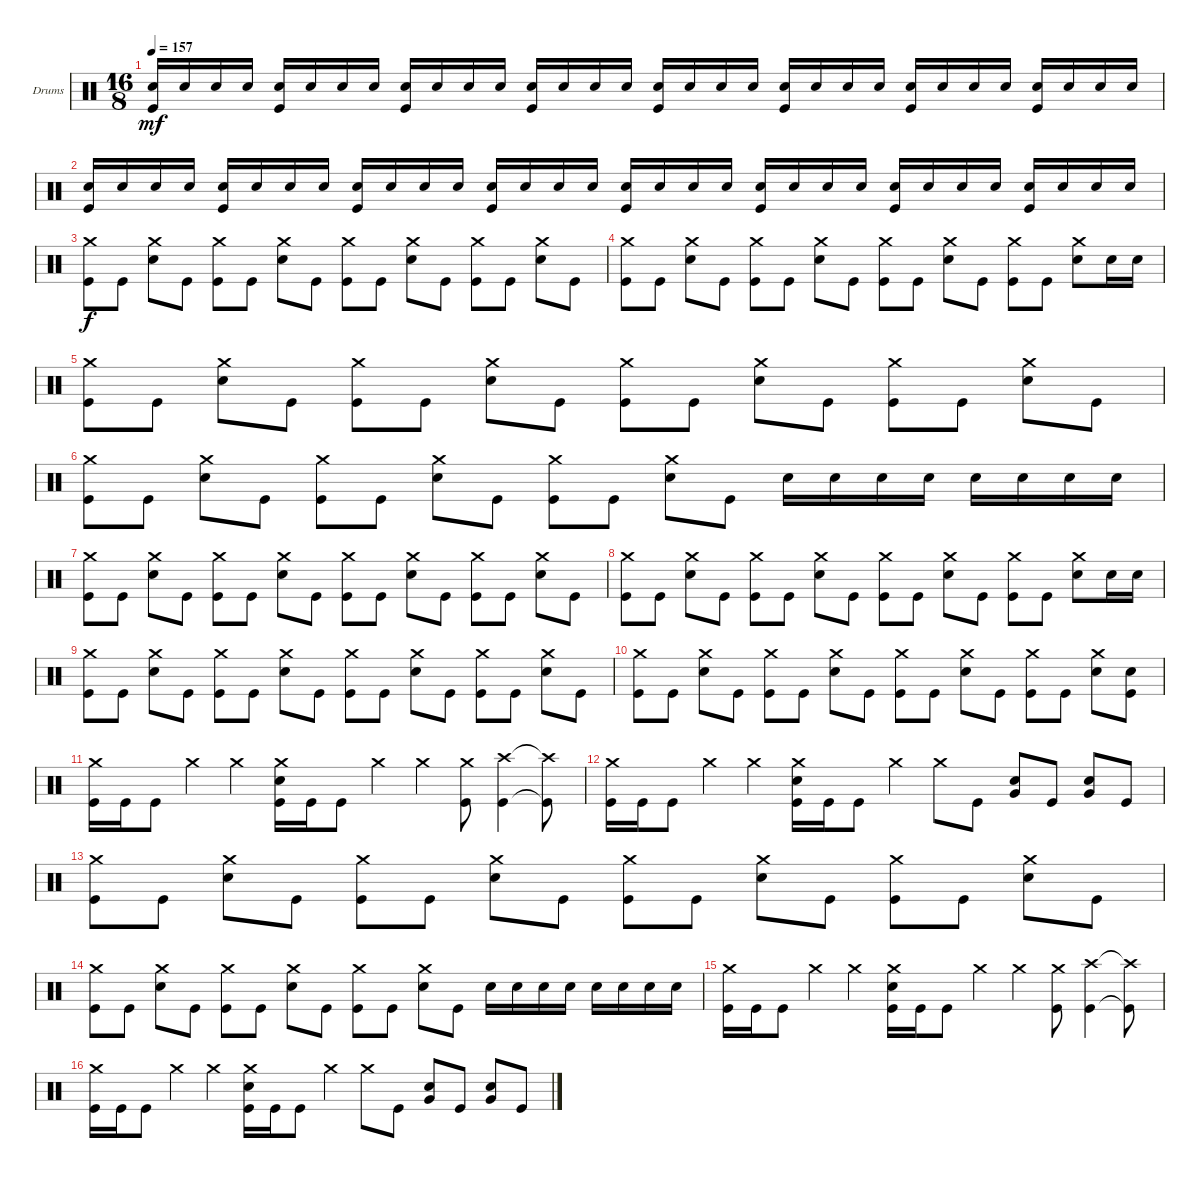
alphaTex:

\bracketExtendMode groupsimilarinstruments
\firstSystemTrackNameOrientation horizontal
\otherSystemsTrackNameOrientation horizontal
\track ("Drumkit" "Drums") {instrument percussion}
\staff {score}
\articulation defaults
\ts (16 8)
\tempo 157
\clef neutral
\ks c
("Snare (hit) 2" "Kick (hit)").16{dy mf} "Snare (hit) 2".16 "Snare (hit) 2".16 "Snare (hit) 2".16 ("Snare (hit) 2" "Kick (hit)").16 "Snare (hit) 2".16 "Snare (hit) 2".16 "Snare (hit) 2".16 ("Snare (hit) 2" "Kick (hit)").16 "Snare (hit) 2".16 "Snare (hit) 2".16 "Snare (hit) 2".16 ("Snare (hit) 2" "Kick (hit)").16 "Snare (hit) 2".16 "Snare (hit) 2".16 "Snare (hit) 2".16 ("Snare (hit) 2" "Kick (hit)").16 "Snare (hit) 2".16 "Snare (hit) 2".16 "Snare (hit) 2".16 ("Snare (hit) 2" "Kick (hit)").16 "Snare (hit) 2".16 "Snare (hit) 2".16 "Snare (hit) 2".16 ("Snare (hit) 2" "Kick (hit)").16 "Snare (hit) 2".16 "Snare (hit) 2".16 "Snare (hit) 2".16 ("Snare (hit) 2" "Kick (hit)").16 "Snare (hit) 2".16 "Snare (hit) 2".16 "Snare (hit) 2".16 |
("Snare (hit) 2" "Kick (hit)").16 "Snare (hit) 2".16 "Snare (hit) 2".16 "Snare (hit) 2".16 ("Snare (hit) 2" "Kick (hit)").16 "Snare (hit) 2".16 "Snare (hit) 2".16 "Snare (hit) 2".16 ("Snare (hit) 2" "Kick (hit)").16 "Snare (hit) 2".16 "Snare (hit) 2".16 "Snare (hit) 2".16 ("Snare (hit) 2" "Kick (hit)").16 "Snare (hit) 2".16 "Snare (hit) 2".16 "Snare (hit) 2".16 ("Snare (hit) 2" "Kick (hit)").16 "Snare (hit) 2".16 "Snare (hit) 2".16 "Snare (hit) 2".16 ("Snare (hit) 2" "Kick (hit)").16 "Snare (hit) 2".16 "Snare (hit) 2".16 "Snare (hit) 2".16 ("Snare (hit) 2" "Kick (hit)").16 "Snare (hit) 2".16 "Snare (hit) 2".16 "Snare (hit) 2".16 ("Snare (hit) 2" "Kick (hit)").16 "Snare (hit) 2".16 "Snare (hit) 2".16 "Snare (hit) 2".16 |
("Kick (hit)" "Crash medium (hit)").8{dy f} "Kick (hit)".8 ("Snare (hit) 2" "Crash medium (hit)").8 "Kick (hit)".8 ("Crash medium (hit)" "Kick (hit)").8 "Kick (hit)".8 ("Snare (hit) 2" "Crash medium (hit)").8 "Kick (hit)".8 ("Kick (hit)" "Crash medium (hit)").8 "Kick (hit)".8 ("Snare (hit) 2" "Crash medium (hit)").8 "Kick (hit)".8 ("Kick (hit)" "Crash medium (hit)").8 "Kick (hit)".8 ("Snare (hit) 2" "Crash medium (hit)").8 "Kick (hit)".8 |
("Kick (hit)" "Crash medium (hit)").8 "Kick (hit)".8 ("Snare (hit) 2" "Crash medium (hit)").8 "Kick (hit)".8 ("Crash medium (hit)" "Kick (hit)").8 "Kick (hit)".8 ("Snare (hit) 2" "Crash medium (hit)").8 "Kick (hit)".8 ("Kick (hit)" "Crash medium (hit)").8 "Kick (hit)".8 ("Snare (hit) 2" "Crash medium (hit)").8 "Kick (hit)".8 ("Kick (hit)" "Crash medium (hit)").8 "Kick (hit)".8 ("Snare (hit) 2" "Crash medium (hit)").8 "Snare (hit) 2".16 "Snare (hit) 2".16 |
("Kick (hit)" "Crash medium (hit)").8 "Kick (hit)".8 ("Snare (hit) 2" "Crash medium (hit)").8 "Kick (hit)".8 ("Crash medium (hit)" "Kick (hit)").8 "Kick (hit)".8 ("Snare (hit) 2" "Crash medium (hit)").8 "Kick (hit)".8 ("Kick (hit)" "Crash medium (hit)").8 "Kick (hit)".8 ("Snare (hit) 2" "Crash medium (hit)").8 "Kick (hit)".8 ("Kick (hit)" "Crash medium (hit)").8 "Kick (hit)".8 ("Snare (hit) 2" "Crash medium (hit)").8 "Kick (hit)".8 |
("Kick (hit)" "Crash medium (hit)").8 "Kick (hit)".8 ("Snare (hit) 2" "Crash medium (hit)").8 "Kick (hit)".8 ("Crash medium (hit)" "Kick (hit)").8 "Kick (hit)".8 ("Snare (hit) 2" "Crash medium (hit)").8 "Kick (hit)".8 ("Kick (hit)" "Crash medium (hit)").8 "Kick (hit)".8 ("Snare (hit) 2" "Crash medium (hit)").8 "Kick (hit)".8 "Snare (hit) 2".16 "Snare (hit) 2".16 "Snare (hit) 2".16 "Snare (hit) 2".16 "Snare (hit) 2".16 "Snare (hit) 2".16 "Snare (hit) 2".16 "Snare (hit) 2".16 |
("Kick (hit)" "Crash medium (hit)").8 "Kick (hit)".8 ("Snare (hit) 2" "Crash medium (hit)").8 "Kick (hit)".8 ("Crash medium (hit)" "Kick (hit)").8 "Kick (hit)".8 ("Snare (hit) 2" "Crash medium (hit)").8 "Kick (hit)".8 ("Kick (hit)" "Crash medium (hit)").8 "Kick (hit)".8 ("Snare (hit) 2" "Crash medium (hit)").8 "Kick (hit)".8 ("Kick (hit)" "Crash medium (hit)").8 "Kick (hit)".8 ("Snare (hit) 2" "Crash medium (hit)").8 "Kick (hit)".8 |
("Kick (hit)" "Crash medium (hit)").8 "Kick (hit)".8 ("Snare (hit) 2" "Crash medium (hit)").8 "Kick (hit)".8 ("Crash medium (hit)" "Kick (hit)").8 "Kick (hit)".8 ("Snare (hit) 2" "Crash medium (hit)").8 "Kick (hit)".8 ("Kick (hit)" "Crash medium (hit)").8 "Kick (hit)".8 ("Snare (hit) 2" "Crash medium (hit)").8 "Kick (hit)".8 ("Kick (hit)" "Crash medium (hit)").8 "Kick (hit)".8 ("Snare (hit) 2" "Crash medium (hit)").8 "Snare (hit) 2".16 "Snare (hit) 2".16 |
("Kick (hit)" "Crash medium (hit)").8 "Kick (hit)".8 ("Snare (hit) 2" "Crash medium (hit)").8 "Kick (hit)".8 ("Crash medium (hit)" "Kick (hit)").8 "Kick (hit)".8 ("Snare (hit) 2" "Crash medium (hit)").8 "Kick (hit)".8 ("Kick (hit)" "Crash medium (hit)").8 "Kick (hit)".8 ("Snare (hit) 2" "Crash medium (hit)").8 "Kick (hit)".8 ("Kick (hit)" "Crash medium (hit)").8 "Kick (hit)".8 ("Snare (hit) 2" "Crash medium (hit)").8 "Kick (hit)".8 |
("Kick (hit)" "Crash medium (hit)").8 "Kick (hit)".8 ("Snare (hit) 2" "Crash medium (hit)").8 "Kick (hit)".8 ("Crash medium (hit)" "Kick (hit)").8 "Kick (hit)".8 ("Snare (hit) 2" "Crash medium (hit)").8 "Kick (hit)".8 ("Kick (hit)" "Crash medium (hit)").8 "Kick (hit)".8 ("Snare (hit) 2" "Crash medium (hit)").8 "Kick (hit)".8 ("Kick (hit)" "Crash medium (hit)").8 "Kick (hit)".8 ("Snare (hit) 2" "Crash medium (hit)").8 ("Kick (hit)" "Snare (hit) 2").8 |
("Crash medium (hit)" "Kick (hit)").16 "Kick (hit)".16 "Kick (hit)".8 "Crash medium (hit)".4 "Crash medium (hit)".4 ("Crash medium (hit)" "Kick (hit)" "Snare (hit) 2").16 "Kick (hit)".16 "Kick (hit)".8 "Crash medium (hit)".4 "Crash medium (hit)".4 ("Crash medium (hit)" "Kick (hit)").8 ("Kick (hit)" "Crash high (hit)").4 ("Kick (hit)"{t} "Crash high (hit)"{t}).8 |
("Crash medium (hit)" "Kick (hit)").16 "Kick (hit)".16 "Kick (hit)".8 "Crash medium (hit)".4 "Crash medium (hit)".4 ("Crash medium (hit)" "Kick (hit)" "Snare (hit) 2").16 "Kick (hit)".16 "Kick (hit)".8 "Crash medium (hit)".4 "Crash medium (hit)".8 "Kick (hit)".8 ("Snare (hit) 2" "Very Low Tom (hit)").8 "Kick (hit)".8 ("Snare (hit) 2" "Very Low Tom (hit)").8 "Kick (hit)".8 |
("Crash medium (hit)" "Kick (hit)").8 "Kick (hit)".8 ("Snare (hit) 2" "Crash medium (hit)").8 "Kick (hit)".8 ("Crash medium (hit)" "Kick (hit)").8 "Kick (hit)".8 ("Snare (hit) 2" "Crash medium (hit)").8 "Kick (hit)".8 ("Crash medium (hit)" "Kick (hit)").8 "Kick (hit)".8 ("Snare (hit) 2" "Crash medium (hit)").8 "Kick (hit)".8 ("Crash medium (hit)" "Kick (hit)").8 "Kick (hit)".8 ("Snare (hit) 2" "Crash medium (hit)").8 "Kick (hit)".8 |
("Crash medium (hit)" "Kick (hit)").8 "Kick (hit)".8 ("Snare (hit) 2" "Crash medium (hit)").8 "Kick (hit)".8 ("Crash medium (hit)" "Kick (hit)").8 "Kick (hit)".8 ("Snare (hit) 2" "Crash medium (hit)").8 "Kick (hit)".8 ("Crash medium (hit)" "Kick (hit)").8 "Kick (hit)".8 ("Snare (hit) 2" "Crash medium (hit)").8 "Kick (hit)".8 "Snare (hit) 2".16 "Snare (hit) 2".16 "Snare (hit) 2".16 "Snare (hit) 2".16 "Snare (hit) 2".16 "Snare (hit) 2".16 "Snare (hit) 2".16 "Snare (hit) 2".16 |
("Crash medium (hit)" "Kick (hit)").16 "Kick (hit)".16 "Kick (hit)".8 "Crash medium (hit)".4 "Crash medium (hit)".4 ("Crash medium (hit)" "Kick (hit)" "Snare (hit) 2").16 "Kick (hit)".16 "Kick (hit)".8 "Crash medium (hit)".4 "Crash medium (hit)".4 ("Crash medium (hit)" "Kick (hit)").8 ("Kick (hit)" "Crash high (hit)").4 ("Kick (hit)"{t} "Crash high (hit)"{t}).8 |
("Crash medium (hit)" "Kick (hit)").16 "Kick (hit)".16 "Kick (hit)".8 "Crash medium (hit)".4 "Crash medium (hit)".4 ("Crash medium (hit)" "Kick (hit)" "Snare (hit) 2").16 "Kick (hit)".16 "Kick (hit)".8 "Crash medium (hit)".4 "Crash medium (hit)".8 "Kick (hit)".8 ("Snare (hit) 2" "Very Low Tom (hit)").8 "Kick (hit)".8 ("Snare (hit) 2" "Very Low Tom (hit)").8 "Kick (hit)".8
